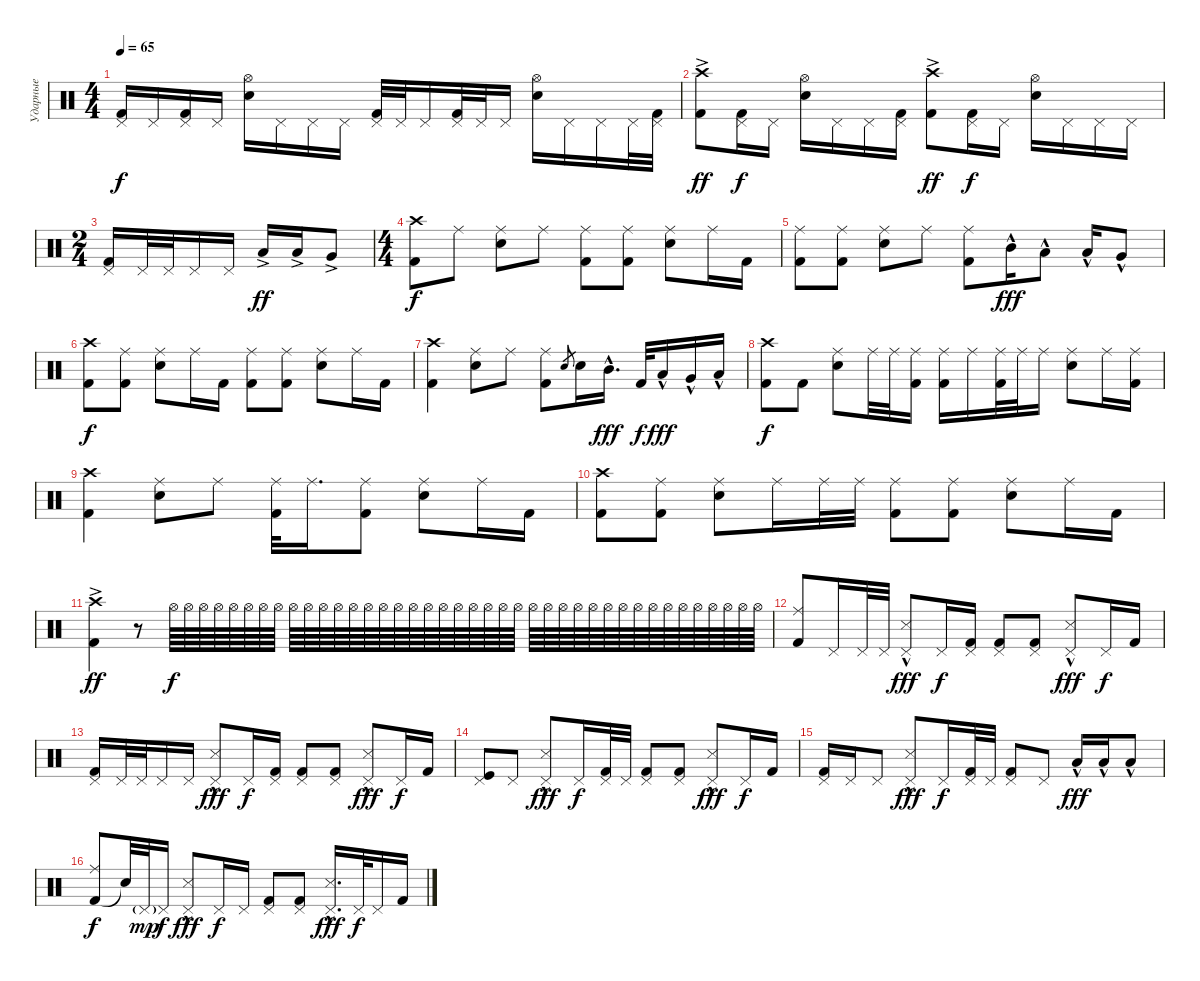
\track ("Ударные" "Ударные") {instrument percussion}
\staff {score}
\articulation defaults
\ts (4 4)
\tempo 65
\clef neutral
\ks c
("Kick (hit) 2" "Pedal Hi-Hat (hit)").16{dy f} "Pedal Hi-Hat (hit)".16 ("Kick (hit) 2" "Pedal Hi-Hat (hit)").16 "Pedal Hi-Hat (hit)".16 ("Snare (hit) 2" "Hi-Hat (open)").16 "Pedal Hi-Hat (hit)".16 "Pedal Hi-Hat (hit)".16 "Pedal Hi-Hat (hit)".16 ("Kick (hit) 2" "Pedal Hi-Hat (hit)").32 "Pedal Hi-Hat (hit)".32 "Pedal Hi-Hat (hit)".16 ("Kick (hit) 2" "Pedal Hi-Hat (hit)").32 "Pedal Hi-Hat (hit)".32 "Pedal Hi-Hat (hit)".16 ("Snare (hit) 2" "Hi-Hat (open)").16 "Pedal Hi-Hat (hit)".16 "Pedal Hi-Hat (hit)".16 "Pedal Hi-Hat (hit)".32 ("Kick (hit) 2" "Pedal Hi-Hat (hit)").32 |
("Kick (hit) 2" "Crash high (hit)"{ac}).8{dy ff} ("Kick (hit) 2" "Pedal Hi-Hat (hit)").16{dy f} "Pedal Hi-Hat (hit)".16 ("Snare (hit) 2" "Hi-Hat (open)").16 "Pedal Hi-Hat (hit)".16 "Pedal Hi-Hat (hit)".16 ("Kick (hit) 2" "Pedal Hi-Hat (hit)").16 ("Kick (hit) 2" "Crash high (hit)"{ac}).8{dy ff} ("Kick (hit) 2" "Pedal Hi-Hat (hit)").16{dy f} "Pedal Hi-Hat (hit)".16 ("Snare (hit) 2" "Hi-Hat (open)").16 "Pedal Hi-Hat (hit)".16 "Pedal Hi-Hat (hit)".16 "Pedal Hi-Hat (hit)".16 |
\ts (2 4)
("Kick (hit) 2" "Pedal Hi-Hat (hit)").16 "Pedal Hi-Hat (hit)".32 "Pedal Hi-Hat (hit)".32 "Pedal Hi-Hat (hit)".16 "Pedal Hi-Hat (hit)".16 "Low Tom (hit)"{ac}.16{dy ff} "Low Tom (hit)"{ac}.16 "Very Low Tom (hit)"{ac}.8 |
\ts (4 4)
("Kick (hit) 2" "Crash high (hit)").8{dy f} "Ride (middle)".8 ("Snare (hit) 2" "Ride (middle)").8 "Ride (middle)".8 ("Kick (hit) 2" "Ride (middle)").8 ("Kick (hit) 2" "Ride (middle)").8 ("Snare (hit) 2" "Ride (middle)").8 "Ride (middle)".16 "Kick (hit) 2".16 |
("Kick (hit) 2" "Ride (middle)").8 ("Kick (hit) 2" "Ride (middle)").8 ("Snare (hit) 2" "Ride (middle)").8 "Ride (middle)".8 ("Kick (hit) 2" "Ride (middle)").8 "Mid Tom (hit)"{hac}.16{dy fff} "Low Tom (hit)"{hac}.8 "Low Tom (hit)"{hac}.16 "Very Low Tom (hit)"{hac}.8 |
("Kick (hit) 2" "Crash high (hit)").8{dy f} ("Kick (hit) 2" "Ride (middle)").8 ("Snare (hit) 2" "Ride (middle)").8 "Ride (middle)".16 "Kick (hit) 2".16 ("Kick (hit) 2" "Ride (middle)").8 ("Kick (hit) 2" "Ride (middle)").8 ("Snare (hit) 2" "Ride (middle)").8 "Ride (middle)".16 "Kick (hit) 2".16 |
("Kick (hit) 2" "Crash high (hit)").4 ("Snare (hit) 2" "Ride (middle)").8 "Ride (middle)".8 ("Kick (hit) 2" "Ride (middle)").8 "Snare (hit) 2".8{gr} "Snare (hit) 2".16 "Mid Tom (hit)"{hac}.16{d dy fff} "Kick (hit) 2".32{dy f} "Low Tom (hit)"{hac}.16{dy fff} "Very Low Tom (hit)"{hac}.16 "Low Floor Tom (hit)"{hac}.16 |
("Kick (hit) 2" "Crash high (hit)").8{dy f} "Kick (hit) 2".8 ("Snare (hit) 2" "Ride (middle)").8 "Ride (middle)".32 "Ride (middle)".32 ("Kick (hit) 2" "Ride (middle)").16 ("Kick (hit) 2" "Ride (middle)").16 "Ride (middle)".16 ("Kick (hit) 2" "Ride (middle)").32 "Ride (middle)".32 "Ride (middle)".16 ("Snare (hit) 2" "Ride (middle)").8 "Ride (middle)".16 ("Kick (hit) 2" "Ride (middle)").16 |
("Kick (hit) 2" "Crash high (hit)").4 ("Snare (hit) 2" "Ride (middle)").8 "Ride (middle)".8 ("Kick (hit) 2" "Ride (middle)").32 "Ride (middle)".16{d} ("Kick (hit) 2" "Ride (middle)").8 ("Snare (hit) 2" "Ride (middle)").8 "Ride (middle)".16 "Kick (hit) 2".16 |
("Kick (hit) 2" "Crash high (hit)").8 ("Kick (hit) 2" "Ride (middle)").8 ("Snare (hit) 2" "Ride (middle)").8 "Ride (middle)".16 "Ride (middle)".32 "Ride (middle)".32 ("Kick (hit) 2" "Ride (middle)").8 ("Kick (hit) 2" "Ride (middle)").8 ("Snare (hit) 2" "Ride (middle)").8 "Ride (middle)".16 "Kick (hit) 2".16 |
("Kick (hit) 2" "Crash high (hit)"{ac}).4{dy ff} r.8{volume 3} "Hi-Hat (open)".64{dy f volume 11} "Hi-Hat (open)".64 "Hi-Hat (open)".64 "Hi-Hat (open)".64 "Hi-Hat (open)".64 "Hi-Hat (open)".64 "Hi-Hat (open)".64 "Hi-Hat (open)".64 "Hi-Hat (open)".64 "Hi-Hat (open)".64 "Hi-Hat (open)".64 "Hi-Hat (open)".64 "Hi-Hat (open)".64 "Hi-Hat (open)".64 "Hi-Hat (open)".64 "Hi-Hat (open)".64 "Hi-Hat (open)".64 "Hi-Hat (open)".64 "Hi-Hat (open)".64 "Hi-Hat (open)".64 "Hi-Hat (open)".64 "Hi-Hat (open)".64 "Hi-Hat (open)".64 "Hi-Hat (open)".64 "Hi-Hat (open)".64 "Hi-Hat (open)".64 "Hi-Hat (open)".64 "Hi-Hat (open)".64 "Hi-Hat (open)".64 "Hi-Hat (open)".64 "Hi-Hat (open)".64 "Hi-Hat (open)".64 "Hi-Hat (open)".64 "Hi-Hat (open)".64 "Hi-Hat (open)".64 "Hi-Hat (open)".64 "Hi-Hat (open)".64 "Hi-Hat (open)".64 "Hi-Hat (open)".64 "Hi-Hat (open)".64 |
("Kick (hit) 2" "Ride (middle)").8 "Pedal Hi-Hat (hit)".16 "Pedal Hi-Hat (hit)".32 "Pedal Hi-Hat (hit)".32 ("Snare (side stick) 3"{hac} "Pedal Hi-Hat (hit)").8{dy fff} "Pedal Hi-Hat (hit)".16{dy f} ("Kick (hit) 2" "Pedal Hi-Hat (hit)").16 ("Kick (hit) 2" "Pedal Hi-Hat (hit)").8 ("Kick (hit) 2" "Pedal Hi-Hat (hit)").8 ("Snare (side stick) 3"{hac} "Pedal Hi-Hat (hit)").8{dy fff} "Pedal Hi-Hat (hit)".16{dy f} "Kick (hit) 2".16 |
("Kick (hit) 2" "Pedal Hi-Hat (hit)").16 "Pedal Hi-Hat (hit)".32 "Pedal Hi-Hat (hit)".32 "Pedal Hi-Hat (hit)".16 "Pedal Hi-Hat (hit)".16 ("Snare (side stick) 3"{hac} "Pedal Hi-Hat (hit)").8{dy fff} "Pedal Hi-Hat (hit)".16{dy f} ("Kick (hit) 2" "Pedal Hi-Hat (hit)").16 ("Kick (hit) 2" "Pedal Hi-Hat (hit)").8 ("Kick (hit) 2" "Pedal Hi-Hat (hit)").8 ("Snare (side stick) 3"{hac} "Pedal Hi-Hat (hit)").8{dy fff} "Pedal Hi-Hat (hit)".16{dy f} "Kick (hit) 2".16 |
("Kick (hit)" "Pedal Hi-Hat (hit)").8 "Pedal Hi-Hat (hit)".8 ("Snare (side stick) 3"{hac} "Pedal Hi-Hat (hit)").8{dy fff} "Pedal Hi-Hat (hit)".16{dy f} ("Kick (hit) 2" "Pedal Hi-Hat (hit)").32 "Pedal Hi-Hat (hit)".32 ("Kick (hit) 2" "Pedal Hi-Hat (hit)").8 ("Kick (hit) 2" "Pedal Hi-Hat (hit)").8 ("Snare (side stick) 3"{hac} "Pedal Hi-Hat (hit)").8{dy fff} "Pedal Hi-Hat (hit)".16{dy f} "Kick (hit) 2".16 |
("Kick (hit) 2" "Pedal Hi-Hat (hit)").16 "Pedal Hi-Hat (hit)".16 "Pedal Hi-Hat (hit)".8 ("Snare (side stick) 3"{hac} "Pedal Hi-Hat (hit)").8{dy fff} "Pedal Hi-Hat (hit)".16{dy f} ("Kick (hit) 2" "Pedal Hi-Hat (hit)").32 "Pedal Hi-Hat (hit)".32 ("Kick (hit) 2" "Pedal Hi-Hat (hit)").8 "Pedal Hi-Hat (hit)".8 "Low Tom (hit)"{hac}.16{dy fff} "Low Tom (hit)"{hac}.16 "Low Tom (hit)"{hac}.8 |
("Kick (hit) 2" "Ride (middle)").8{dy f} "Snare (hit)"{t}.32 "Pedal Hi-Hat (hit)"{g}.32{dy mp} "Pedal Hi-Hat (hit)".16{dy f} ("Snare (side stick) 3"{hac} "Pedal Hi-Hat (hit)").8{dy fff} "Pedal Hi-Hat (hit)".16{dy f} "Pedal Hi-Hat (hit)".16 ("Kick (hit) 2" "Pedal Hi-Hat (hit)").8 ("Kick (hit) 2" "Pedal Hi-Hat (hit)").8 ("Snare (side stick) 3"{hac} "Pedal Hi-Hat (hit)").16{d dy fff} "Pedal Hi-Hat (hit)".32{dy f} "Pedal Hi-Hat (hit)".16 "Kick (hit) 2".16
